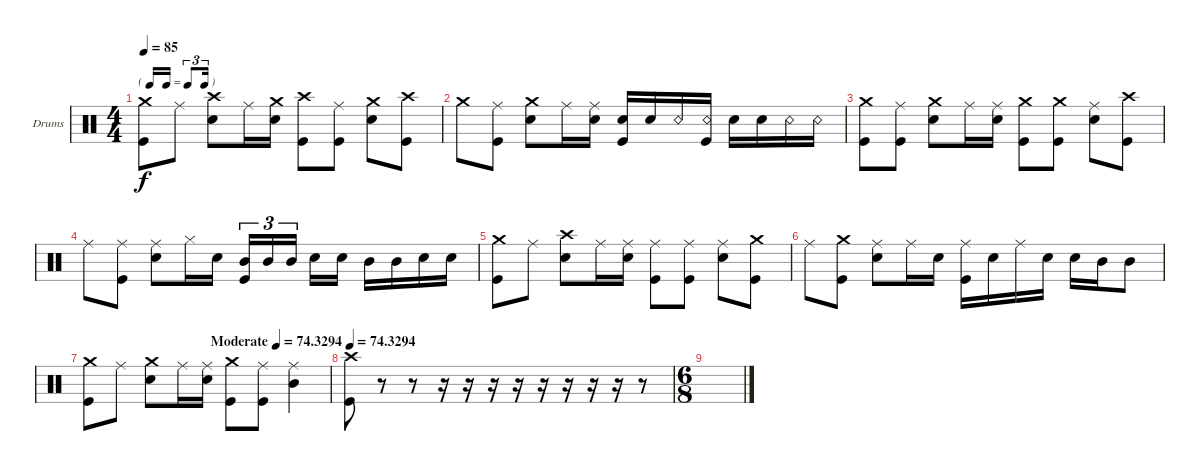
\bracketExtendMode groupsimilarinstruments
\firstSystemTrackNameOrientation horizontal
\otherSystemsTrackNameOrientation horizontal
\track ("Drumkit" "Drums") {instrument percussion}
\staff {score}
\articulation defaults
\ts (4 4)
\tf triplet16th
\tempo 85
\clef neutral
\ks c
("Crash medium (hit)" "Kick (hit)").8{dy f} "Ride (middle)".8 ("Snare (hit) 2" "Crash high (hit)").8 "Ride (middle)".16 ("Snare (hit) 2" "Crash medium (hit)").16 ("Kick (hit)" "Crash high (hit)").8 ("Ride (middle)" "Kick (hit)").8 ("Snare (hit) 2" "Crash medium (hit)").8 ("Kick (hit)" "Crash high (hit)").8 |
"Crash medium (hit)".8 ("Ride (middle)" "Kick (hit)").8 ("Snare (hit) 2" "Crash medium (hit)").8 "Ride (middle)".16 ("Snare (hit) 2" "Ride (middle)").16 ("Kick (hit)" "Snare (hit) 2").16 "Snare (hit) 2".16 "Snare (rim shot)".16 ("Snare (rim shot)" "Kick (hit)").16 "Snare (hit) 2".16 "Snare (hit) 2".16 "Snare (rim shot)".16 "Snare (rim shot)".16 |
("Crash medium (hit)" "Kick (hit)").8 ("Ride (middle)" "Kick (hit)").8 ("Snare (hit) 2" "Crash medium (hit)").8 "Ride (middle)".16 ("Snare (hit) 2" "Ride (middle)").16 ("Kick (hit)" "Crash medium (hit)").8 ("Kick (hit)" "Crash medium (hit)").8 ("Ride (middle)" "Snare (hit) 2").8 ("Crash high (hit)" "Kick (hit)").8 |
"Ride (middle)".8 ("Ride (middle)" "Kick (hit)").8 ("Snare (hit) 2" "Ride (middle)").8 "Hi-Hat (closed)".16 "Snare (hit) 2".16 ("Kick (hit)" "Mid Tom (hit)").16{tu (3 2)} "Mid Tom (hit)".16{tu (3 2)} "Mid Tom (hit)".16{tu (3 2)} "Snare (hit) 2".16 "Snare (hit) 2".16 "Mid Tom (hit)".16 "Mid Tom (hit)".16 "Snare (hit) 2".16 "Snare (hit) 2".16 |
("Crash medium (hit)" "Kick (hit)").8 "Ride (middle)".8 ("Snare (hit) 2" "Crash high (hit)").8 "Ride (middle)".16 ("Snare (hit) 2" "Ride (middle)").16 ("Ride (middle)" "Kick (hit)").8 ("Ride (middle)" "Kick (hit)").8 ("Ride (middle)" "Snare (hit) 2").8 ("Crash medium (hit)" "Kick (hit)").8 |
"Ride (middle)".8 ("Kick (hit)" "Crash medium (hit)").8 ("Ride (middle)" "Snare (hit) 2").8 "Ride (middle)".16 "Snare (hit) 2".16 ("Ride (middle)" "Kick (hit)").16 "Snare (hit) 2".16 "Ride (middle)".16 "Snare (hit) 2".16 "Snare (hit) 2".16 "Mid Tom (hit)".16 "Mid Tom (hit)".8 |
\tempo (74.3294 "Moderate" 0.5)
("Crash medium (hit)" "Kick (hit)").8 "Ride (middle)".8 ("Snare (hit) 2" "Crash medium (hit)").8 "Ride (middle)".16 ("Snare (hit) 2" "Ride (middle)").16 ("Kick (hit)" "Crash medium (hit)").8 ("Ride (middle)" "Kick (hit)").8 ("Ride (middle)" "Mid Tom (hit)").4 |
\tempo
74.3294 ("Crash high (hit)" "Kick (hit)").8 r.8 r.8 r.16 r.16 r.16 r.16 r.16 r.16 r.16 r.16 r.8 |
\ts (6 8)
